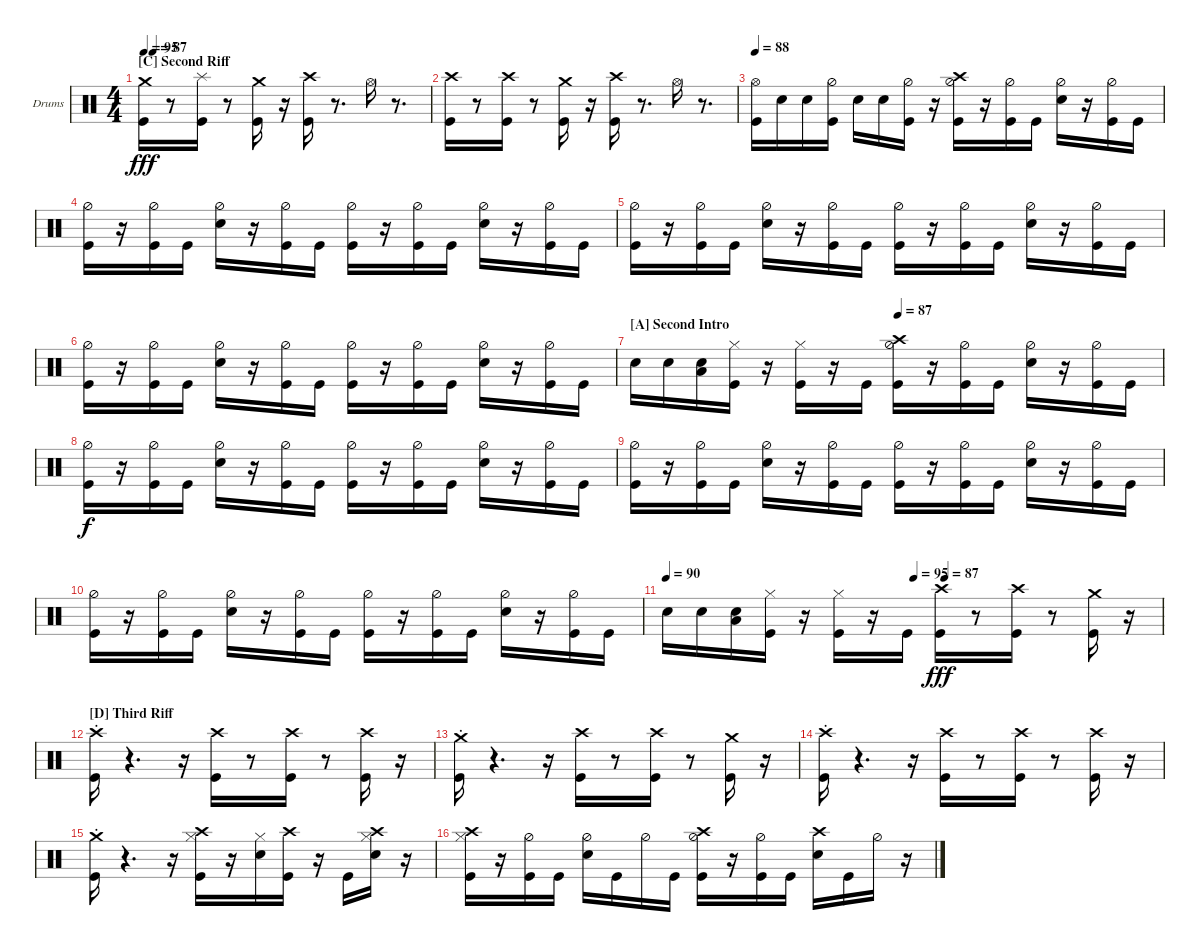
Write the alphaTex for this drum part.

\defaultSystemsLayout 4
\bracketExtendMode groupsimilarinstruments
\firstSystemTrackNameOrientation horizontal
\otherSystemsTrackNameOrientation horizontal
\track ("Drums" "Drums") {instrument percussion}
\staff {score}
\articulation defaults
\ts (4 4)
\section ("C" "Second Riff")
\tempo 95
\tempo (87 0.03125)
\clef neutral
\scale
0.333333
\ks c
("Kick (hit)" "Crash medium (hit)").16{dy fff} r.8 ("Kick (hit)" "Splash (hit)").16 r.8 ("Kick (hit)" "Crash medium (hit)").16 r.16 ("Kick (hit)" "Crash high (hit)").16 r.8{d} "Hi-Hat (open)".16 r.8{d} |
\scale
0.333333 ("Kick (hit)" "Crash high (hit)").16 r.8 ("Kick (hit)" "Crash high (hit)").16 r.8 ("Kick (hit)" "Crash medium (hit)").16 r.16 ("Kick (hit)" "Crash high (hit)").16 r.8{d} "Hi-Hat (open)".16 r.8{d} |
\tempo 88
\scale
0.333333 ("Kick (hit)" "Hi-Hat (open)").16 "Snare (hit) 2".16 "Snare (hit) 2".16 ("Kick (hit)" "Hi-Hat (half)").16 "Snare (hit) 2".16 "Snare (hit) 2".16 ("Kick (hit)" "Hi-Hat (half)").16 r.16 ("Kick (hit)" "Hi-Hat (half)" "Crash high (hit)").16 r.16 ("Kick (hit)" "Hi-Hat (half)").16 "Kick (hit)".16 ("Snare (hit) 2" "Hi-Hat (half)").16 r.16 ("Kick (hit)" "Hi-Hat (half)").16 "Kick (hit)".16 |
\scale
0.333333 ("Kick (hit)" "Hi-Hat (half)").16 r.16 ("Kick (hit)" "Hi-Hat (half)").16 "Kick (hit)".16 ("Snare (hit) 2" "Hi-Hat (half)").16 r.16 ("Kick (hit)" "Hi-Hat (half)").16 "Kick (hit)".16 ("Kick (hit)" "Hi-Hat (half)").16 r.16 ("Kick (hit)" "Hi-Hat (half)").16 "Kick (hit)".16 ("Snare (hit) 2" "Hi-Hat (half)").16 r.16 ("Kick (hit)" "Hi-Hat (half)").16 "Kick (hit)".16 |
\scale
0.333333 ("Kick (hit)" "Hi-Hat (half)").16 r.16 ("Kick (hit)" "Hi-Hat (half)").16 "Kick (hit)".16 ("Snare (hit) 2" "Hi-Hat (half)").16 r.16 ("Kick (hit)" "Hi-Hat (half)").16 "Kick (hit)".16 ("Kick (hit)" "Hi-Hat (half)").16 r.16 ("Kick (hit)" "Hi-Hat (half)").16 "Kick (hit)".16 ("Snare (hit) 2" "Hi-Hat (half)").16 r.16 ("Kick (hit)" "Hi-Hat (half)").16 "Kick (hit)".16 |
\scale
0.333333 ("Kick (hit)" "Hi-Hat (half)").16 r.16 ("Kick (hit)" "Hi-Hat (half)").16 "Kick (hit)".16 ("Snare (hit) 2" "Hi-Hat (half)").16 r.16 ("Kick (hit)" "Hi-Hat (half)").16 "Kick (hit)".16 ("Kick (hit)" "Hi-Hat (half)").16 r.16 ("Kick (hit)" "Hi-Hat (half)").16 "Kick (hit)".16 ("Snare (hit) 2" "Hi-Hat (half)").16 r.16 ("Kick (hit)" "Hi-Hat (half)").16 "Kick (hit)".16 |
\section ("A" "Second Intro")
\tempo (87 0.5)
\scale
0.333333 "Snare (hit) 2".16 "Snare (hit) 2".16 ("Low Tom (hit)" "Snare (hit) 2").16 ("Kick (hit)" "Hi-Hat (closed)").16 r.16 ("Kick (hit)" "Hi-Hat (closed)").16 r.16 "Kick (hit)".16 ("Kick (hit)" "Hi-Hat (half)" "Crash high (hit)").16 r.16 ("Kick (hit)" "Hi-Hat (half)").16 "Kick (hit)".16 ("Snare (hit) 2" "Hi-Hat (half)").16 r.16 ("Kick (hit)" "Hi-Hat (half)").16 "Kick (hit)".16 |
\scale
0.333333 ("Kick (hit)" "Hi-Hat (half)").16{dy f} r.16 ("Kick (hit)" "Hi-Hat (half)").16 "Kick (hit)".16 ("Snare (hit) 2" "Hi-Hat (half)").16 r.16 ("Kick (hit)" "Hi-Hat (half)").16 "Kick (hit)".16 ("Kick (hit)" "Hi-Hat (half)").16 r.16 ("Kick (hit)" "Hi-Hat (half)").16 "Kick (hit)".16 ("Snare (hit) 2" "Hi-Hat (half)").16 r.16 ("Kick (hit)" "Hi-Hat (half)").16 "Kick (hit)".16 |
\scale
0.333333 ("Kick (hit)" "Hi-Hat (half)").16 r.16 ("Kick (hit)" "Hi-Hat (half)").16 "Kick (hit)".16 ("Snare (hit) 2" "Hi-Hat (half)").16 r.16 ("Kick (hit)" "Hi-Hat (half)").16 "Kick (hit)".16 ("Kick (hit)" "Hi-Hat (half)").16 r.16 ("Kick (hit)" "Hi-Hat (half)").16 "Kick (hit)".16 ("Snare (hit) 2" "Hi-Hat (half)").16 r.16 ("Kick (hit)" "Hi-Hat (half)").16 "Kick (hit)".16 |
\scale
0.333333 ("Kick (hit)" "Hi-Hat (half)").16 r.16 ("Kick (hit)" "Hi-Hat (half)").16 "Kick (hit)".16 ("Snare (hit) 2" "Hi-Hat (half)").16 r.16 ("Kick (hit)" "Hi-Hat (half)").16 "Kick (hit)".16 ("Kick (hit)" "Hi-Hat (half)").16 r.16 ("Kick (hit)" "Hi-Hat (half)").16 "Kick (hit)".16 ("Snare (hit) 2" "Hi-Hat (half)").16 r.16 ("Kick (hit)" "Hi-Hat (half)").16 "Kick (hit)".16 |
\tempo 90
\tempo (95 0.5)
\tempo (87 0.5625)
\scale
0.333333 "Snare (hit) 2".16 "Snare (hit) 2".16 ("Low Tom (hit)" "Snare (hit) 2").16 ("Kick (hit)" "Hi-Hat (closed)").16 r.16 ("Kick (hit)" "Hi-Hat (closed)").16 r.16 "Kick (hit)".16 ("Kick (hit)" "Crash high (hit)").16{dy fff} r.8 ("Kick (hit)" "Crash high (hit)").16 r.8 ("Kick (hit)" "Crash medium (hit)").16 r.16 |
\section ("D" "Third Riff")
\scale
0.333333 ("Kick (hit)"{st} "Crash high (hit)"{st}).16 r.4{d} r.16 ("Kick (hit)" "Crash high (hit)").16 r.8 ("Kick (hit)" "Crash high (hit)").16 r.8 ("Kick (hit)" "Crash high (hit)").16 r.16 |
\scale
0.333333 ("Kick (hit)"{st} "Crash medium (hit)"{st}).16 r.4{d} r.16 ("Kick (hit)" "Crash high (hit)").16 r.8 ("Kick (hit)" "Crash high (hit)").16 r.8 ("Kick (hit)" "Crash medium (hit)").16 r.16 |
\scale
0.333333 ("Kick (hit)" "Crash high (hit)"{st}).16 r.4{d} r.16 ("Kick (hit)" "Crash high (hit)").16 r.8 ("Kick (hit)" "Crash high (hit)").16 r.8 ("Kick (hit)" "Crash high (hit)").16 r.16 |
\scale
0.333333 ("Kick (hit)"{st} "Crash medium (hit)"{st}).16 r.4{d} r.16 ("Kick (hit)" "Hi-Hat (closed)" "Crash high (hit)").16 r.16 ("Snare (hit) 2" "Hi-Hat (closed)").16 ("Kick (hit)" "Crash high (hit)").16 r.16 "Kick (hit)".16 ("Snare (hit) 2" "Hi-Hat (closed)" "Crash high (hit)").16 r.16 |
\scale
0.333333 ("Kick (hit)" "Hi-Hat (closed)" "Crash high (hit)").16 r.16 ("Kick (hit)" "Hi-Hat (half)").16 "Kick (hit)".16 ("Snare (hit) 2" "Hi-Hat (half)").16 "Kick (hit)".16 "Hi-Hat (half)".16 "Kick (hit)".16 ("Kick (hit)" "Hi-Hat (half)" "Crash high (hit)").16 r.16 ("Kick (hit)" "Hi-Hat (half)").16 "Kick (hit)".16 ("Snare (hit) 2" "Crash high (hit)").16 "Kick (hit)".16 "Hi-Hat (half)".16 r.16
